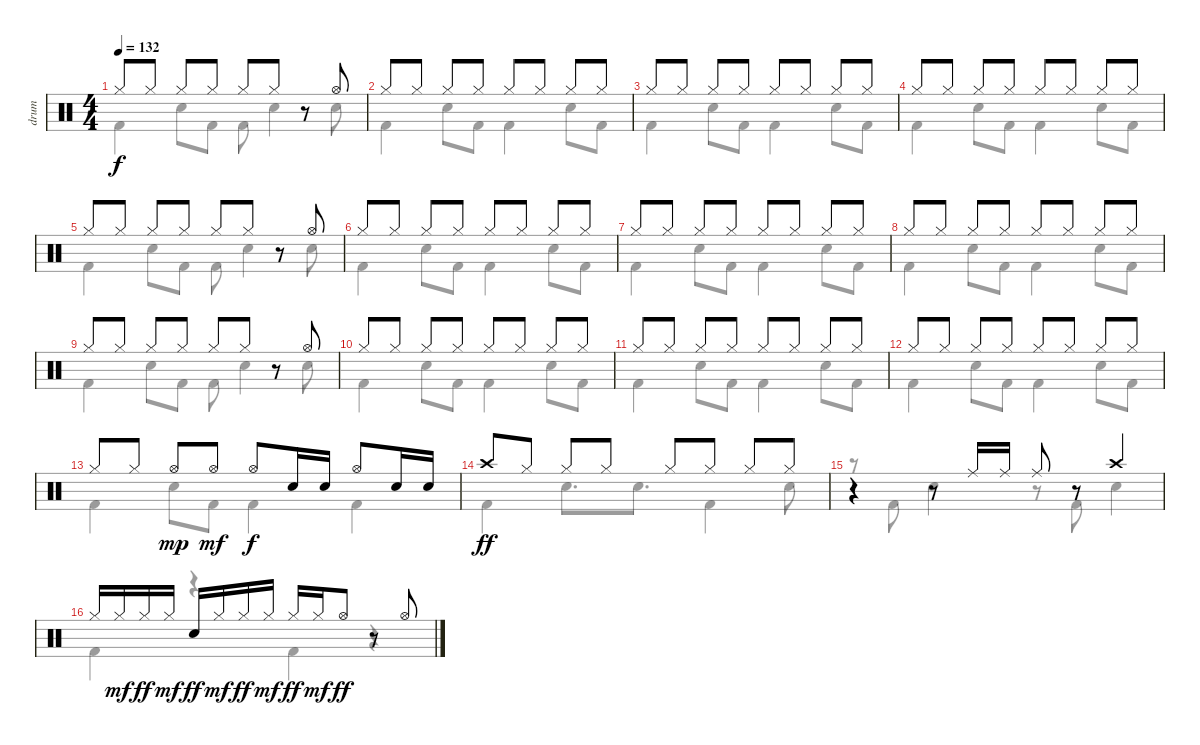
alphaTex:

\track ("drum" "drum") {instrument percussion}
\staff {score}
\articulation defaults
\voice
\ts (4 4)
\tempo 132
\clef neutral
\ks c "Hi-Hat (closed)".8{dy f} "Hi-Hat (closed)".8 "Hi-Hat (closed)".8 "Hi-Hat (closed)".8 "Hi-Hat (closed)".8 "Hi-Hat (closed)".8
r.8 "Hi-Hat (open)".8 |
"Hi-Hat (closed)".8 "Hi-Hat (closed)".8 "Hi-Hat (closed)".8 "Hi-Hat (closed)".8 "Hi-Hat (closed)".8 "Hi-Hat (closed)".8 "Hi-Hat (closed)".8 "Hi-Hat (closed)".8 |
"Hi-Hat (closed)".8 "Hi-Hat (closed)".8 "Hi-Hat (closed)".8 "Hi-Hat (closed)".8 "Hi-Hat (closed)".8 "Hi-Hat (closed)".8 "Hi-Hat (closed)".8 "Hi-Hat (closed)".8 |
"Hi-Hat (closed)".8 "Hi-Hat (closed)".8 "Hi-Hat (closed)".8 "Hi-Hat (closed)".8 "Hi-Hat (closed)".8 "Hi-Hat (closed)".8 "Hi-Hat (closed)".8 "Hi-Hat (closed)".8 |
"Hi-Hat (closed)".8 "Hi-Hat (closed)".8 "Hi-Hat (closed)".8 "Hi-Hat (closed)".8 "Hi-Hat (closed)".8 "Hi-Hat (closed)".8 r.8 "Hi-Hat (open)".8 |
"Hi-Hat (closed)".8 "Hi-Hat (closed)".8 "Hi-Hat (closed)".8 "Hi-Hat (closed)".8 "Hi-Hat (closed)".8 "Hi-Hat (closed)".8 "Hi-Hat (closed)".8 "Hi-Hat (closed)".8 |
"Hi-Hat (closed)".8 "Hi-Hat (closed)".8 "Hi-Hat (closed)".8 "Hi-Hat (closed)".8 "Hi-Hat (closed)".8 "Hi-Hat (closed)".8 "Hi-Hat (closed)".8 "Hi-Hat (closed)".8 |
"Hi-Hat (closed)".8 "Hi-Hat (closed)".8 "Hi-Hat (closed)".8 "Hi-Hat (closed)".8 "Hi-Hat (closed)".8 "Hi-Hat (closed)".8 "Hi-Hat (closed)".8 "Hi-Hat (closed)".8 |
"Hi-Hat (closed)".8 "Hi-Hat (closed)".8 "Hi-Hat (closed)".8 "Hi-Hat (closed)".8 "Hi-Hat (closed)".8 "Hi-Hat (closed)".8 r.8 "Hi-Hat (open)".8 |
"Hi-Hat (closed)".8 "Hi-Hat (closed)".8 "Hi-Hat (closed)".8 "Hi-Hat (closed)".8 "Hi-Hat (closed)".8 "Hi-Hat (closed)".8 "Hi-Hat (closed)".8 "Hi-Hat (closed)".8 |
"Hi-Hat (closed)".8 "Hi-Hat (closed)".8 "Hi-Hat (closed)".8 "Hi-Hat (closed)".8 "Hi-Hat (closed)".8 "Hi-Hat (closed)".8 "Hi-Hat (closed)".8 "Hi-Hat (closed)".8 |
"Hi-Hat (closed)".8 "Hi-Hat (closed)".8 "Hi-Hat (closed)".8 "Hi-Hat (closed)".8 "Hi-Hat (closed)".8 "Hi-Hat (closed)".8 "Hi-Hat (closed)".8 "Hi-Hat (closed)".8 |
"Hi-Hat (closed)".8 "Hi-Hat (closed)".8 "Hi-Hat (open)".8{dy mp} "Hi-Hat (open)".8{dy mf} "Hi-Hat (open)".8{dy f} "Snare (hit) 2".16 "Snare (hit) 2".16 "Hi-Hat (open)".8 "Snare (hit) 2".16 "Snare (hit) 2".16 |
"Crash high (hit)".8{dy ff} "Hi-Hat (closed)".8 "Hi-Hat (closed)".8 "Hi-Hat (closed)".8 "Hi-Hat (closed)".8 "Hi-Hat (closed)".8 "Hi-Hat (closed)".8 "Hi-Hat (closed)".8 |
r.4 r.8 "Ride (middle)".16 "Ride (middle)".16 "Ride (middle)".8 r.8 "Crash high (hit)".4 |
"Hi-Hat (closed)".16 "Hi-Hat (closed)".16{dy mf} "Hi-Hat (closed)".16{dy ff} "Hi-Hat (closed)".16{dy mf} "Snare (hit) 2".16{dy ff} "Hi-Hat (closed)".16{dy mf} "Hi-Hat (closed)".16{dy ff} "Hi-Hat (closed)".16{dy mf} "Hi-Hat (closed)".16{dy ff} "Hi-Hat (closed)".16{dy mf} "Hi-Hat (open)".8{dy ff} r.8 "Hi-Hat (open)".8
\voice
\clef neutral
\ottava regular
\simile none
\ks c "Kick (hit) 2".4{dy f} "Snare (hit) 2".8 "Kick (hit) 2".8 "Kick (hit) 2".8 "Snare (hit) 2".4 "Snare (hit) 2".8
|
"Kick (hit) 2".4 "Snare (hit) 2".8 "Kick (hit) 2".8 "Kick (hit) 2".4 "Snare (hit) 2".8 "Kick (hit) 2".8 |
"Kick (hit) 2".4 "Snare (hit) 2".8 "Kick (hit) 2".8 "Kick (hit) 2".4 "Snare (hit) 2".8 "Kick (hit) 2".8 |
"Kick (hit) 2".4 "Snare (hit) 2".8 "Kick (hit) 2".8 "Kick (hit) 2".4 "Snare (hit) 2".8 "Kick (hit) 2".8 |
"Kick (hit) 2".4 "Snare (hit) 2".8 "Kick (hit) 2".8 "Kick (hit) 2".8 "Snare (hit) 2".4 "Snare (hit) 2".8 |
"Kick (hit) 2".4 "Snare (hit) 2".8 "Kick (hit) 2".8 "Kick (hit) 2".4 "Snare (hit) 2".8 "Kick (hit) 2".8 |
"Kick (hit) 2".4 "Snare (hit) 2".8 "Kick (hit) 2".8 "Kick (hit) 2".4 "Snare (hit) 2".8 "Kick (hit) 2".8 |
"Kick (hit) 2".4 "Snare (hit) 2".8 "Kick (hit) 2".8 "Kick (hit) 2".4 "Snare (hit) 2".8 "Kick (hit) 2".8 |
"Kick (hit) 2".4 "Snare (hit) 2".8 "Kick (hit) 2".8 "Kick (hit) 2".8 "Snare (hit) 2".4 "Snare (hit) 2".8 |
"Kick (hit) 2".4 "Snare (hit) 2".8 "Kick (hit) 2".8 "Kick (hit) 2".4 "Snare (hit) 2".8 "Kick (hit) 2".8 |
"Kick (hit) 2".4 "Snare (hit) 2".8 "Kick (hit) 2".8 "Kick (hit) 2".4 "Snare (hit) 2".8 "Kick (hit) 2".8 |
"Kick (hit) 2".4 "Snare (hit) 2".8 "Kick (hit) 2".8 "Kick (hit) 2".4 "Snare (hit) 2".8 "Kick (hit) 2".8 |
"Kick (hit) 2".4 "Snare (hit) 2".8 "Kick (hit) 2".8 "Kick (hit) 2".4 "Kick (hit) 2".4 |
"Kick (hit) 2".4{dy ff} "Snare (hit) 2".8{d} "Snare (hit) 2".8{d} "Kick (hit) 2".4 "Snare (hit) 2".8 |
r.8 "Kick (hit) 2".8 "Snare (hit) 2".4 r.8 "Kick (hit) 2".8 "Snare (hit) 2".4 |
"Kick (hit) 2".4 r.4 "Kick (hit) 2".4 r.4
